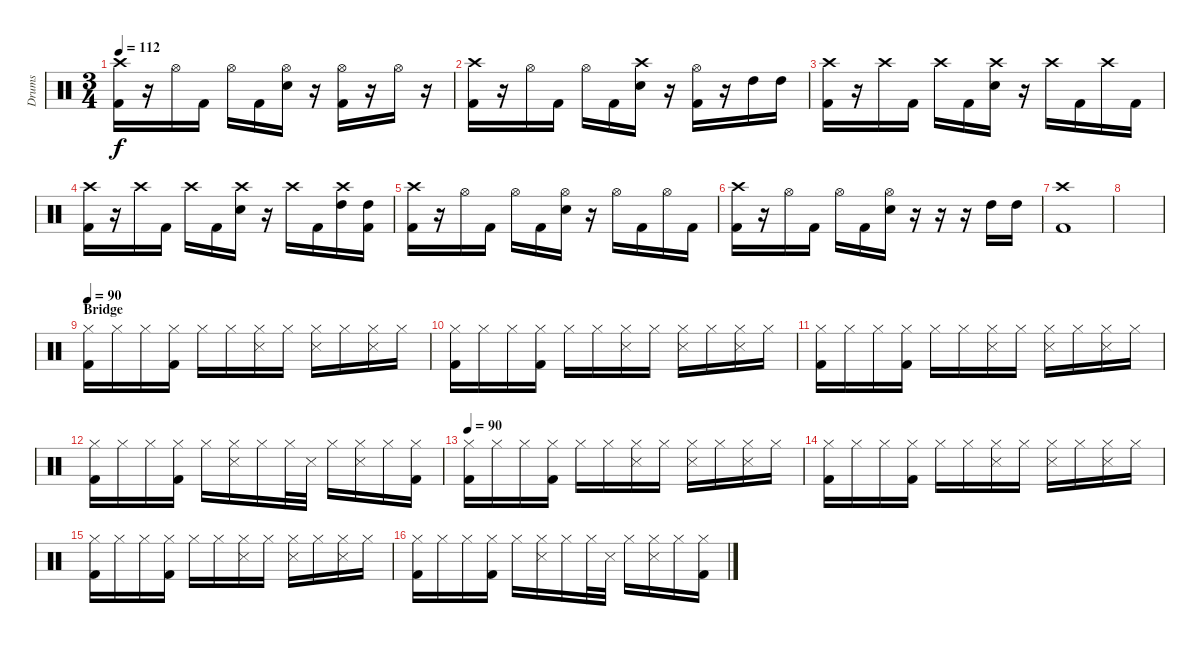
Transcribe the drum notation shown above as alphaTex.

\track ("Drums" "Drums") {instrument percussion}
\staff {score}
\articulation defaults
\ts (3 4)
\tempo 112
\clef neutral
\ks c
("Crash high (hit)" "Kick (hit) 2").16{dy f} r.16 "Hi-Hat (open)".16 "Kick (hit) 2".16 "Hi-Hat (open)".16 "Kick (hit) 2".16 ("Hi-Hat (open)" "Electric Snare (hit)").16 r.16 ("Hi-Hat (open)" "Kick (hit) 2").16 r.16 "Hi-Hat (open)".16 r.16 |
("Crash high (hit)" "Kick (hit) 2").16 r.16 "Hi-Hat (open)".16 "Kick (hit) 2".16 "Hi-Hat (open)".16 "Kick (hit) 2".16 ("Crash high (hit)" "Electric Snare (hit)").16 r.16 ("Hi-Hat (open)" "Kick (hit) 2").16 r.16 "High Tom (hit)".16 "High Tom (hit)".16 |
("Crash high (hit)" "Kick (hit) 2").16 r.16 "Crash high (hit)".16 "Kick (hit) 2".16 "Crash high (hit)".16 "Kick (hit) 2".16 ("Crash high (hit)" "Electric Snare (hit)").16 r.16 "Crash high (hit)".16 "Kick (hit) 2".16 "Crash high (hit)".16 "Kick (hit) 2".16 |
("Crash high (hit)" "Kick (hit) 2").16 r.16 "Crash high (hit)".16 "Kick (hit) 2".16 "Crash high (hit)".16 "Kick (hit) 2".16 ("Crash high (hit)" "Electric Snare (hit)").16 r.16 "Crash high (hit)".16 "Kick (hit) 2".16 ("Crash high (hit)" "High Tom (hit)").16 ("High Tom (hit)" "Kick (hit) 2").16 |
("Crash high (hit)" "Kick (hit) 2").16 r.16 "Hi-Hat (open)".16 "Kick (hit) 2".16 "Hi-Hat (open)".16 "Kick (hit) 2".16 ("Hi-Hat (open)" "Electric Snare (hit)").16 r.16 "Hi-Hat (open)".16 "Kick (hit) 2".16 "Hi-Hat (open)".16 "Kick (hit) 2".16 |
("Crash high (hit)" "Kick (hit) 2").16 r.16 "Hi-Hat (open)".16 "Kick (hit) 2".16 "Hi-Hat (open)".16 "Kick (hit) 2".16 ("Hi-Hat (open)" "Electric Snare (hit)").16 r.16 r.16 r.16 "High Tom (hit)".16 "High Tom (hit)".16 |
("Crash high (hit)" "Kick (hit) 2").1 |
|
\section ("" "Bridge")
\tempo 90
("Hi-Hat (closed)" "Kick (hit) 2").16 "Hi-Hat (closed)".16 "Hi-Hat (closed)".16 ("Hi-Hat (closed)" "Kick (hit) 2").16 "Hi-Hat (closed)".16 "Hi-Hat (closed)".16 ("Hi-Hat (closed)" "Snare (side stick) 3").16 "Hi-Hat (closed)".16 ("Hi-Hat (closed)" "Snare (side stick) 3").16 "Hi-Hat (closed)".16 ("Hi-Hat (closed)" "Snare (side stick) 3").16 "Hi-Hat (closed)".16 |
("Hi-Hat (closed)" "Kick (hit) 2").16 "Hi-Hat (closed)".16 "Hi-Hat (closed)".16 ("Hi-Hat (closed)" "Kick (hit) 2").16 "Hi-Hat (closed)".16 "Hi-Hat (closed)".16 ("Hi-Hat (closed)" "Snare (side stick) 3").16 "Hi-Hat (closed)".16 ("Hi-Hat (closed)" "Snare (side stick) 3").16 "Hi-Hat (closed)".16 ("Hi-Hat (closed)" "Snare (side stick) 3").16 "Hi-Hat (closed)".16 |
("Hi-Hat (closed)" "Kick (hit) 2").16 "Hi-Hat (closed)".16 "Hi-Hat (closed)".16 ("Hi-Hat (closed)" "Kick (hit) 2").16 "Hi-Hat (closed)".16 "Hi-Hat (closed)".16 ("Hi-Hat (closed)" "Snare (side stick) 3").16 "Hi-Hat (closed)".16 ("Hi-Hat (closed)" "Snare (side stick) 3").16 "Hi-Hat (closed)".16 ("Hi-Hat (closed)" "Snare (side stick) 3").16 "Hi-Hat (closed)".16 |
("Hi-Hat (closed)" "Kick (hit) 2").16 "Hi-Hat (closed)".16 "Hi-Hat (closed)".16 ("Hi-Hat (closed)" "Kick (hit) 2").16 "Hi-Hat (closed)".16 ("Hi-Hat (closed)" "Snare (side stick) 3").16 "Hi-Hat (closed)".16 "Hi-Hat (closed)".32 "Snare (side stick) 3".32 "Hi-Hat (closed)".16 ("Hi-Hat (closed)" "Snare (side stick) 3").16 "Hi-Hat (closed)".16 ("Hi-Hat (closed)" "Kick (hit) 2").16 |
\tempo 90
("Hi-Hat (closed)" "Kick (hit) 2").16 "Hi-Hat (closed)".16 "Hi-Hat (closed)".16 ("Hi-Hat (closed)" "Kick (hit) 2").16 "Hi-Hat (closed)".16 "Hi-Hat (closed)".16 ("Hi-Hat (closed)" "Snare (side stick) 3").16 "Hi-Hat (closed)".16 ("Hi-Hat (closed)" "Snare (side stick) 3").16 "Hi-Hat (closed)".16 ("Hi-Hat (closed)" "Snare (side stick) 3").16 "Hi-Hat (closed)".16 |
("Hi-Hat (closed)" "Kick (hit) 2").16 "Hi-Hat (closed)".16 "Hi-Hat (closed)".16 ("Hi-Hat (closed)" "Kick (hit) 2").16 "Hi-Hat (closed)".16 "Hi-Hat (closed)".16 ("Hi-Hat (closed)" "Snare (side stick) 3").16 "Hi-Hat (closed)".16 ("Hi-Hat (closed)" "Snare (side stick) 3").16 "Hi-Hat (closed)".16 ("Hi-Hat (closed)" "Snare (side stick) 3").16 "Hi-Hat (closed)".16 |
("Hi-Hat (closed)" "Kick (hit) 2").16 "Hi-Hat (closed)".16 "Hi-Hat (closed)".16 ("Hi-Hat (closed)" "Kick (hit) 2").16 "Hi-Hat (closed)".16 "Hi-Hat (closed)".16 ("Hi-Hat (closed)" "Snare (side stick) 3").16 "Hi-Hat (closed)".16 ("Hi-Hat (closed)" "Snare (side stick) 3").16 "Hi-Hat (closed)".16 ("Hi-Hat (closed)" "Snare (side stick) 3").16 "Hi-Hat (closed)".16 |
("Hi-Hat (closed)" "Kick (hit) 2").16 "Hi-Hat (closed)".16 "Hi-Hat (closed)".16 ("Hi-Hat (closed)" "Kick (hit) 2").16 "Hi-Hat (closed)".16 ("Hi-Hat (closed)" "Snare (side stick) 3").16 "Hi-Hat (closed)".16 "Hi-Hat (closed)".32 "Snare (side stick) 3".32 "Hi-Hat (closed)".16 ("Hi-Hat (closed)" "Snare (side stick) 3").16 "Hi-Hat (closed)".16 ("Hi-Hat (closed)" "Kick (hit) 2").16
